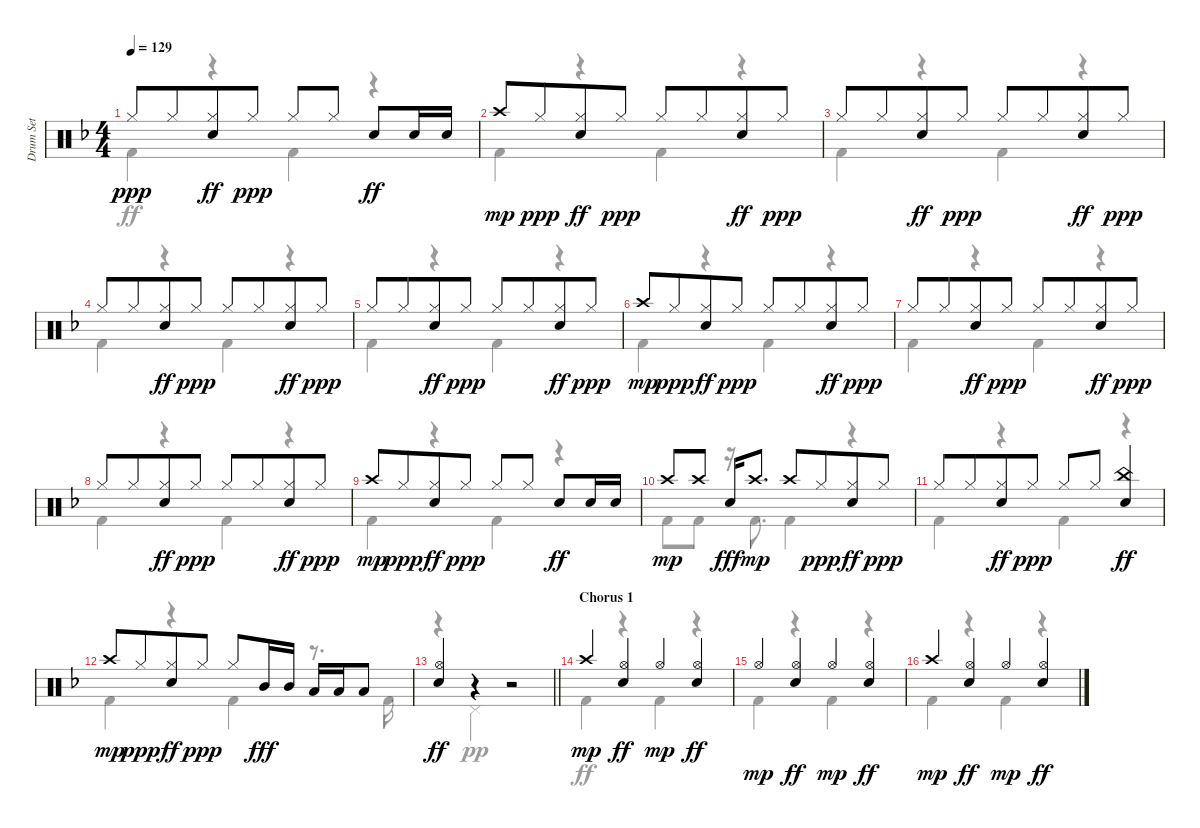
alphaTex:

\track ("Drum Set" "Drum Set") {instrument percussion}
\staff {score}
\articulation defaults
\voice
\ts (4 4)
\tempo 129
\clef neutral
\ks dminor "Hi-Hat (closed)".8{dy ppp} "Hi-Hat (closed)".8{beam merge}
("Hi-Hat (closed)" "Electric Snare (hit)").8{dy ff} "Hi-Hat (closed)".8{dy ppp} "Hi-Hat (closed)".8 "Hi-Hat (closed)".8 "Electric Snare (hit)".8{dy ff} "Electric Snare (hit)".16 "Electric Snare (hit)".16 |
"Crash high (hit)".8{dy mp} "Hi-Hat (closed)".8{dy ppp beam merge} ("Hi-Hat (closed)" "Electric Snare (hit)").8{dy ff} "Hi-Hat (closed)".8{dy ppp} "Hi-Hat (closed)".8 "Hi-Hat (closed)".8{beam merge} ("Hi-Hat (closed)" "Electric Snare (hit)").8{dy ff} "Hi-Hat (closed)".8{dy ppp} |
"Hi-Hat (closed)".8 "Hi-Hat (closed)".8{beam merge} ("Hi-Hat (closed)" "Electric Snare (hit)").8{dy ff} "Hi-Hat (closed)".8{dy ppp} "Hi-Hat (closed)".8 "Hi-Hat (closed)".8{beam merge} ("Hi-Hat (closed)" "Electric Snare (hit)").8{dy ff} "Hi-Hat (closed)".8{dy ppp} |
"Hi-Hat (closed)".8 "Hi-Hat (closed)".8{beam merge} ("Hi-Hat (closed)" "Electric Snare (hit)").8{dy ff} "Hi-Hat (closed)".8{dy ppp} "Hi-Hat (closed)".8 "Hi-Hat (closed)".8{beam merge} ("Hi-Hat (closed)" "Electric Snare (hit)").8{dy ff} "Hi-Hat (closed)".8{dy ppp} |
"Hi-Hat (closed)".8 "Hi-Hat (closed)".8{beam merge} ("Hi-Hat (closed)" "Electric Snare (hit)").8{dy ff} "Hi-Hat (closed)".8{dy ppp} "Hi-Hat (closed)".8 "Hi-Hat (closed)".8{beam merge} ("Hi-Hat (closed)" "Electric Snare (hit)").8{dy ff} "Hi-Hat (closed)".8{dy ppp} |
"Crash high (hit)".8{dy mp} "Hi-Hat (closed)".8{dy ppp beam merge} ("Hi-Hat (closed)" "Electric Snare (hit)").8{dy ff} "Hi-Hat (closed)".8{dy ppp} "Hi-Hat (closed)".8 "Hi-Hat (closed)".8{beam merge} ("Hi-Hat (closed)" "Electric Snare (hit)").8{dy ff} "Hi-Hat (closed)".8{dy ppp} |
"Hi-Hat (closed)".8 "Hi-Hat (closed)".8{beam merge} ("Hi-Hat (closed)" "Electric Snare (hit)").8{dy ff} "Hi-Hat (closed)".8{dy ppp} "Hi-Hat (closed)".8 "Hi-Hat (closed)".8{beam merge} ("Hi-Hat (closed)" "Electric Snare (hit)").8{dy ff} "Hi-Hat (closed)".8{dy ppp} |
"Hi-Hat (closed)".8 "Hi-Hat (closed)".8{beam merge} ("Hi-Hat (closed)" "Electric Snare (hit)").8{dy ff} "Hi-Hat (closed)".8{dy ppp} "Hi-Hat (closed)".8 "Hi-Hat (closed)".8{beam merge} ("Hi-Hat (closed)" "Electric Snare (hit)").8{dy ff} "Hi-Hat (closed)".8{dy ppp} |
"Crash high (hit)".8{dy mp} "Hi-Hat (closed)".8{dy ppp beam merge} ("Hi-Hat (closed)" "Electric Snare (hit)").8{dy ff} "Hi-Hat (closed)".8{dy ppp} "Hi-Hat (closed)".8 "Hi-Hat (closed)".8 "Electric Snare (hit)".8{dy ff} "Electric Snare (hit)".16 "Electric Snare (hit)".16 |
"Crash high (hit)".8{dy mp} "Crash high (hit)".8 "Electric Snare (hit)".16{dy fff} "Crash high (hit)".8{d dy mp} "Crash high (hit)".8 "Hi-Hat (closed)".8{dy ppp beam merge} ("Hi-Hat (closed)" "Electric Snare (hit)").8{dy ff} "Hi-Hat (closed)".8{dy ppp} |
"Hi-Hat (closed)".8 "Hi-Hat (closed)".8{beam merge} ("Hi-Hat (closed)" "Electric Snare (hit)").8{dy ff} "Hi-Hat (closed)".8{dy ppp} "Hi-Hat (closed)".8 "Hi-Hat (closed)".8{beam merge} ("China (hit)" "Electric Snare (hit)").4{dy ff} |
"Crash high (hit)".8{dy mp} "Hi-Hat (closed)".8{dy ppp beam merge} ("Hi-Hat (closed)" "Electric Snare (hit)").8{dy ff} "Hi-Hat (closed)".8{dy ppp} "Hi-Hat (closed)".8 "Mid Tom (hit)".16{dy fff} "Mid Tom (hit)".16 "Low Tom (hit)".16 "Low Tom (hit)".16 "Low Tom (hit)".8 |
\barLineRight lightlight
("Hi-Hat (open)" "Electric Snare (hit)").4{dy ff} r.4 r.2 |
\section ("" "Chorus 1")
"Crash high (hit)".4{dy mp} ("Hi-Hat (open)" "Electric Snare (hit)").4{dy ff} "Hi-Hat (open)".4{dy mp} ("Hi-Hat (open)" "Electric Snare (hit)").4{dy ff} |
"Hi-Hat (open)".4{dy mp} ("Hi-Hat (open)" "Electric Snare (hit)").4{dy ff} "Hi-Hat (open)".4{dy mp} ("Hi-Hat (open)" "Electric Snare (hit)").4{dy ff} |
"Crash high (hit)".4{dy mp} ("Hi-Hat (open)" "Electric Snare (hit)").4{dy ff} "Hi-Hat (open)".4{dy mp} ("Hi-Hat (open)" "Electric Snare (hit)").4{dy ff}
\voice
\clef neutral
\ottava regular
\simile none
\ks dminor "Kick (hit) 2".4{dy ff}
r.4 "Kick (hit) 2".4 r.4 |
"Kick (hit) 2".4 r.4 "Kick (hit) 2".4 r.4 |
"Kick (hit) 2".4 r.4 "Kick (hit) 2".4 r.4 |
"Kick (hit) 2".4 r.4 "Kick (hit) 2".4 r.4 |
"Kick (hit) 2".4 r.4 "Kick (hit) 2".4 r.4 |
"Kick (hit) 2".4 r.4 "Kick (hit) 2".4 r.4 |
"Kick (hit) 2".4 r.4 "Kick (hit) 2".4 r.4 |
"Kick (hit) 2".4 r.4 "Kick (hit) 2".4 r.4 |
"Kick (hit) 2".4 r.4 "Kick (hit) 2".4 r.4 |
"Kick (hit) 2".8 "Kick (hit) 2".8 r.16 "Kick (hit) 2".8{d} "Kick (hit) 2".4 r.4 |
"Kick (hit) 2".4 r.4 "Kick (hit) 2".4 r.4 |
"Kick (hit) 2".4 r.4 "Kick (hit) 2".4 r.8{d} "Kick (hit) 2".16 |
\barLineRight lightlight
r.4 "Pedal Hi-Hat (hit)".4{dy pp} r.2 |
"Kick (hit) 2".4{dy ff} r.4 "Kick (hit) 2".4 r.4 |
"Kick (hit) 2".4 r.4 "Kick (hit) 2".4 r.4 |
"Kick (hit) 2".4 r.4 "Kick (hit) 2".4 r.4
